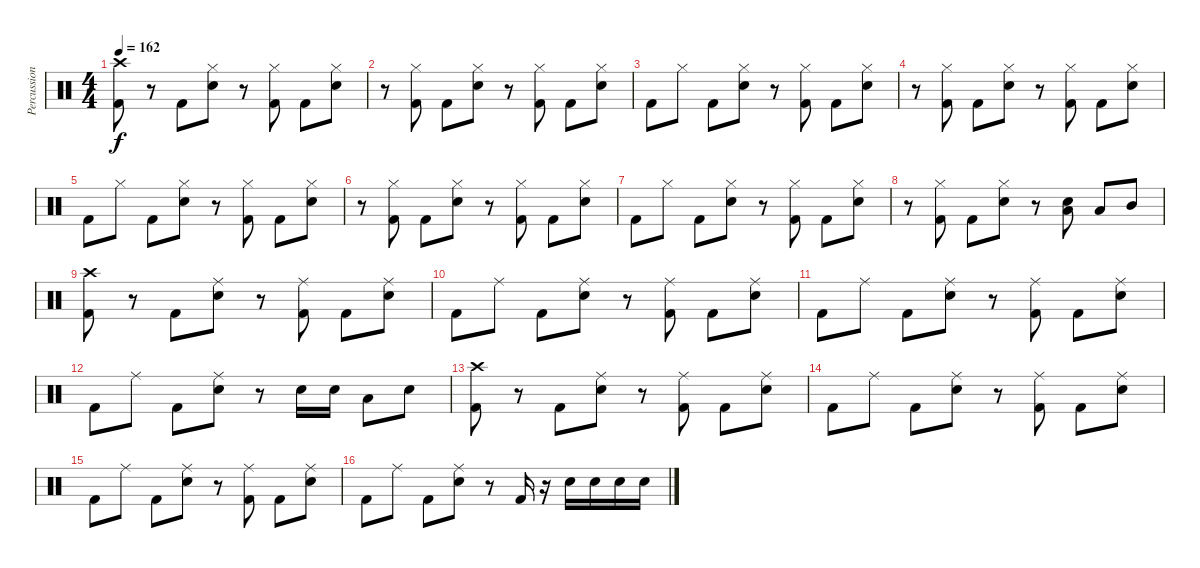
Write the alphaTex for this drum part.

\track ("Percussion" "Percussion") {instrument percussion}
\staff {score}
\articulation defaults
\ts (4 4)
\tempo 162
\clef neutral
\ks c
("Crash high (hit)" "Kick (hit) 2").8{dy f} r.8 "Kick (hit) 2".8 ("Hi-Hat (closed)" "Snare (hit) 2").8 r.8 ("Hi-Hat (closed)" "Kick (hit) 2").8 "Kick (hit) 2".8 ("Hi-Hat (closed)" "Snare (hit) 2").8 |
r.8 ("Hi-Hat (closed)" "Kick (hit) 2").8 "Kick (hit) 2".8 ("Hi-Hat (closed)" "Snare (hit) 2").8 r.8 ("Hi-Hat (closed)" "Kick (hit) 2").8 "Kick (hit) 2".8 ("Hi-Hat (closed)" "Snare (hit) 2").8 |
"Kick (hit) 2".8 "Hi-Hat (closed)".8 "Kick (hit) 2".8 ("Hi-Hat (closed)" "Snare (hit) 2").8 r.8 ("Hi-Hat (closed)" "Kick (hit) 2").8 "Kick (hit) 2".8 ("Hi-Hat (closed)" "Snare (hit) 2").8 |
r.8 ("Hi-Hat (closed)" "Kick (hit) 2").8 "Kick (hit) 2".8 ("Hi-Hat (closed)" "Snare (hit) 2").8 r.8 ("Hi-Hat (closed)" "Kick (hit) 2").8 "Kick (hit) 2".8 ("Hi-Hat (closed)" "Snare (hit) 2").8 |
"Kick (hit) 2".8 "Hi-Hat (closed)".8 "Kick (hit) 2".8 ("Hi-Hat (closed)" "Snare (hit) 2").8 r.8 ("Hi-Hat (closed)" "Kick (hit) 2").8 "Kick (hit) 2".8 ("Hi-Hat (closed)" "Snare (hit) 2").8 |
r.8 ("Hi-Hat (closed)" "Kick (hit) 2").8 "Kick (hit) 2".8 ("Hi-Hat (closed)" "Snare (hit) 2").8 r.8 ("Hi-Hat (closed)" "Kick (hit) 2").8 "Kick (hit) 2".8 ("Hi-Hat (closed)" "Snare (hit) 2").8 |
"Kick (hit) 2".8 "Hi-Hat (closed)".8 "Kick (hit) 2".8 ("Hi-Hat (closed)" "Snare (hit) 2").8 r.8 ("Hi-Hat (closed)" "Kick (hit) 2").8 "Kick (hit) 2".8 ("Hi-Hat (closed)" "Snare (hit) 2").8 |
r.8 ("Hi-Hat (closed)" "Kick (hit) 2").8 "Kick (hit) 2".8 ("Hi-Hat (closed)" "Snare (hit) 2").8 r.8 ("Low Floor Tom (hit)" "Snare (hit) 2").8 "Low Tom (hit)".8 "Mid Tom (hit)".8 |
("Crash high (hit)" "Kick (hit) 2").8 r.8 "Kick (hit) 2".8 ("Ride (middle)" "Snare (hit) 2").8 r.8 ("Ride (middle)" "Kick (hit) 2").8 "Kick (hit) 2".8 ("Ride (middle)" "Snare (hit) 2").8 |
"Kick (hit) 2".8 "Ride (middle)".8 "Kick (hit) 2".8 ("Ride (middle)" "Snare (hit) 2").8 r.8 ("Ride (middle)" "Kick (hit) 2").8 "Kick (hit) 2".8 ("Ride (middle)" "Snare (hit) 2").8 |
"Kick (hit) 2".8 "Ride (middle)".8 "Kick (hit) 2".8 ("Ride (middle)" "Snare (hit) 2").8 r.8 ("Ride (middle)" "Kick (hit) 2").8 "Kick (hit) 2".8 ("Ride (middle)" "Snare (hit) 2").8 |
"Kick (hit) 2".8 "Ride (middle)".8 "Kick (hit) 2".8 ("Ride (middle)" "Snare (hit) 2").8 r.8 "Snare (hit) 2".16 "Snare (hit) 2".16 "Low Floor Tom (hit)".8 "Snare (hit) 2".8 |
("Crash high (hit)" "Kick (hit) 2").8 r.8 "Kick (hit) 2".8 ("Ride (middle)" "Snare (hit) 2").8 r.8 ("Ride (middle)" "Kick (hit) 2").8 "Kick (hit) 2".8 ("Ride (middle)" "Snare (hit) 2").8 |
"Kick (hit) 2".8 "Ride (middle)".8 "Kick (hit) 2".8 ("Ride (middle)" "Snare (hit) 2").8 r.8 ("Ride (middle)" "Kick (hit) 2").8 "Kick (hit) 2".8 ("Ride (middle)" "Snare (hit) 2").8 |
"Kick (hit) 2".8 "Ride (middle)".8 "Kick (hit) 2".8 ("Ride (middle)" "Snare (hit) 2").8 r.8 ("Ride (middle)" "Kick (hit) 2").8 "Kick (hit) 2".8 ("Ride (middle)" "Snare (hit) 2").8 |
"Kick (hit) 2".8 "Ride (middle)".8 "Kick (hit) 2".8 ("Ride (middle)" "Snare (hit) 2").8 r.8 "Kick (hit) 2".16 r.16 "Snare (hit) 2".16 "Snare (hit) 2".16 "Snare (hit) 2".16 "Snare (hit) 2".16
